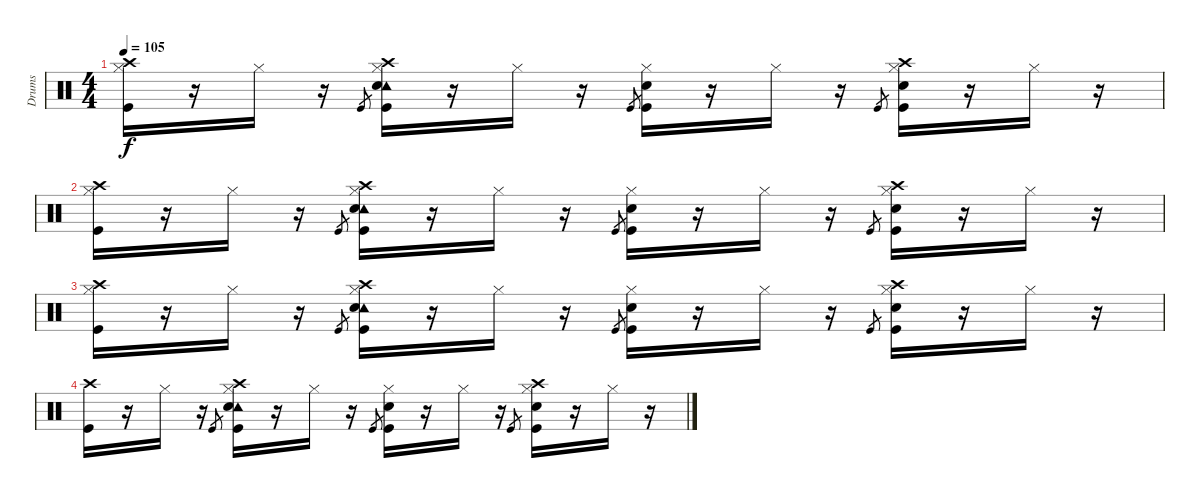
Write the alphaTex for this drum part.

\track ("Drums" "Drums") {instrument percussion}
\staff {score}
\articulation defaults
\ts (4 4)
\tempo 105
\clef neutral
\ks c
("Crash high (hit)" "Hi-Hat (closed)" "Kick (hit)").16{dy f volume 4} r.16 "Hi-Hat (closed)".16 r.16 "Kick (hit)".8{gr} ("Crash high (hit)" "Hi-Hat (closed)" "Tambourine (hit)" "Snare (hit) 2" "Kick (hit)").16 r.16 "Hi-Hat (closed)".16 r.16 "Kick (hit)".8{gr} ("Hi-Hat (closed)" "Snare (hit) 2" "Kick (hit)").16 r.16 "Hi-Hat (closed)".16 r.16 "Kick (hit)".8{gr} ("Crash high (hit)" "Hi-Hat (closed)" "Snare (hit) 2" "Kick (hit)").16 r.16 "Hi-Hat (closed)".16 r.16 |
("Crash high (hit)" "Hi-Hat (closed)" "Kick (hit)").16 r.16 "Hi-Hat (closed)".16 r.16 "Kick (hit)".8{gr} ("Crash high (hit)" "Hi-Hat (closed)" "Tambourine (hit)" "Snare (hit) 2" "Kick (hit)").16 r.16 "Hi-Hat (closed)".16 r.16 "Kick (hit)".8{gr} ("Hi-Hat (closed)" "Snare (hit) 2" "Kick (hit)").16 r.16 "Hi-Hat (closed)".16 r.16 "Kick (hit)".8{gr} ("Crash high (hit)" "Hi-Hat (closed)" "Snare (hit) 2" "Kick (hit)").16 r.16 "Hi-Hat (closed)".16 r.16 |
("Crash high (hit)" "Hi-Hat (closed)" "Kick (hit)").16{volume 1} r.16 "Hi-Hat (closed)".16 r.16 "Kick (hit)".8{gr} ("Crash high (hit)" "Hi-Hat (closed)" "Tambourine (hit)" "Snare (hit) 2" "Kick (hit)").16 r.16 "Hi-Hat (closed)".16 r.16 "Kick (hit)".8{gr} ("Hi-Hat (closed)" "Snare (hit) 2" "Kick (hit)").16 r.16 "Hi-Hat (closed)".16 r.16 "Kick (hit)".8{gr} ("Crash high (hit)" "Hi-Hat (closed)" "Snare (hit) 2" "Kick (hit)").16 r.16 "Hi-Hat (closed)".16 r.16 |
("Crash high (hit)" "Kick (hit)").16 r.16 "Hi-Hat (closed)".16 r.16 "Kick (hit)".8{gr} ("Crash high (hit)" "Hi-Hat (closed)" "Tambourine (hit)" "Snare (hit) 2" "Kick (hit)").16 r.16 "Hi-Hat (closed)".16 r.16 "Kick (hit)".8{gr} ("Hi-Hat (closed)" "Snare (hit) 2" "Kick (hit)").16 r.16 "Hi-Hat (closed)".16 r.16 "Kick (hit)".8{gr} ("Crash high (hit)" "Hi-Hat (closed)" "Snare (hit) 2" "Kick (hit)").16 r.16 "Hi-Hat (closed)".16 r.16
